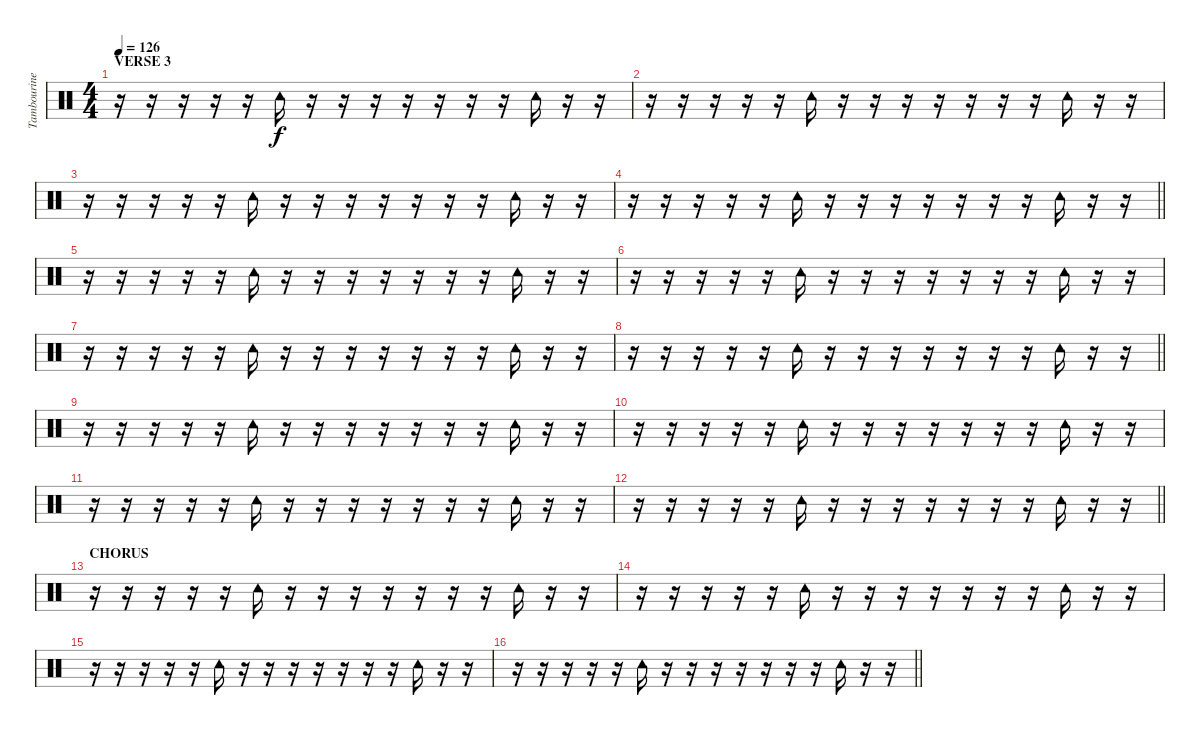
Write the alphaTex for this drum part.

\track ("Tambourine" "Tambourine") {instrument percussion}
\staff {score}
\articulation defaults
\ts (4 4)
\section ("" "VERSE 3")
\tempo 126
\clef neutral
\ks c
r.16{dy f} r.16 r.16 r.16 r.16 "Tambourine (hit)".16 r.16 r.16 r.16 r.16 r.16 r.16 r.16 "Tambourine (hit)".16 r.16 r.16 |
r.16 r.16 r.16 r.16 r.16 "Tambourine (hit)".16 r.16 r.16 r.16 r.16 r.16 r.16 r.16 "Tambourine (hit)".16 r.16 r.16 |
r.16 r.16 r.16 r.16 r.16 "Tambourine (hit)".16 r.16 r.16 r.16 r.16 r.16 r.16 r.16 "Tambourine (hit)".16 r.16 r.16 |
\barLineRight lightlight
r.16 r.16 r.16 r.16 r.16 "Tambourine (hit)".16 r.16 r.16 r.16 r.16 r.16 r.16 r.16 "Tambourine (hit)".16 r.16 r.16 |
r.16 r.16 r.16 r.16 r.16 "Tambourine (hit)".16 r.16 r.16 r.16 r.16 r.16 r.16 r.16 "Tambourine (hit)".16 r.16 r.16 |
r.16 r.16 r.16 r.16 r.16 "Tambourine (hit)".16 r.16 r.16 r.16 r.16 r.16 r.16 r.16 "Tambourine (hit)".16 r.16 r.16 |
r.16 r.16 r.16 r.16 r.16 "Tambourine (hit)".16 r.16 r.16 r.16 r.16 r.16 r.16 r.16 "Tambourine (hit)".16 r.16 r.16 |
\barLineRight lightlight
r.16 r.16 r.16 r.16 r.16 "Tambourine (hit)".16 r.16 r.16 r.16 r.16 r.16 r.16 r.16 "Tambourine (hit)".16 r.16 r.16 |
r.16 r.16 r.16 r.16 r.16 "Tambourine (hit)".16 r.16 r.16 r.16 r.16 r.16 r.16 r.16 "Tambourine (hit)".16 r.16 r.16 |
r.16 r.16 r.16 r.16 r.16 "Tambourine (hit)".16 r.16 r.16 r.16 r.16 r.16 r.16 r.16 "Tambourine (hit)".16 r.16 r.16 |
r.16 r.16 r.16 r.16 r.16 "Tambourine (hit)".16 r.16 r.16 r.16 r.16 r.16 r.16 r.16 "Tambourine (hit)".16 r.16 r.16 |
\barLineRight lightlight
r.16 r.16 r.16 r.16 r.16 "Tambourine (hit)".16 r.16 r.16 r.16 r.16 r.16 r.16 r.16 "Tambourine (hit)".16 r.16 r.16 |
\section ("" "CHORUS")
r.16 r.16 r.16 r.16 r.16 "Tambourine (hit)".16 r.16 r.16 r.16 r.16 r.16 r.16 r.16 "Tambourine (hit)".16 r.16 r.16 |
r.16 r.16 r.16 r.16 r.16 "Tambourine (hit)".16 r.16 r.16 r.16 r.16 r.16 r.16 r.16 "Tambourine (hit)".16 r.16 r.16 |
r.16 r.16 r.16 r.16 r.16 "Tambourine (hit)".16 r.16 r.16 r.16 r.16 r.16 r.16 r.16 "Tambourine (hit)".16 r.16 r.16 |
\barLineRight lightlight
r.16 r.16 r.16 r.16 r.16 "Tambourine (hit)".16 r.16 r.16 r.16 r.16 r.16 r.16 r.16 "Tambourine (hit)".16 r.16 r.16
